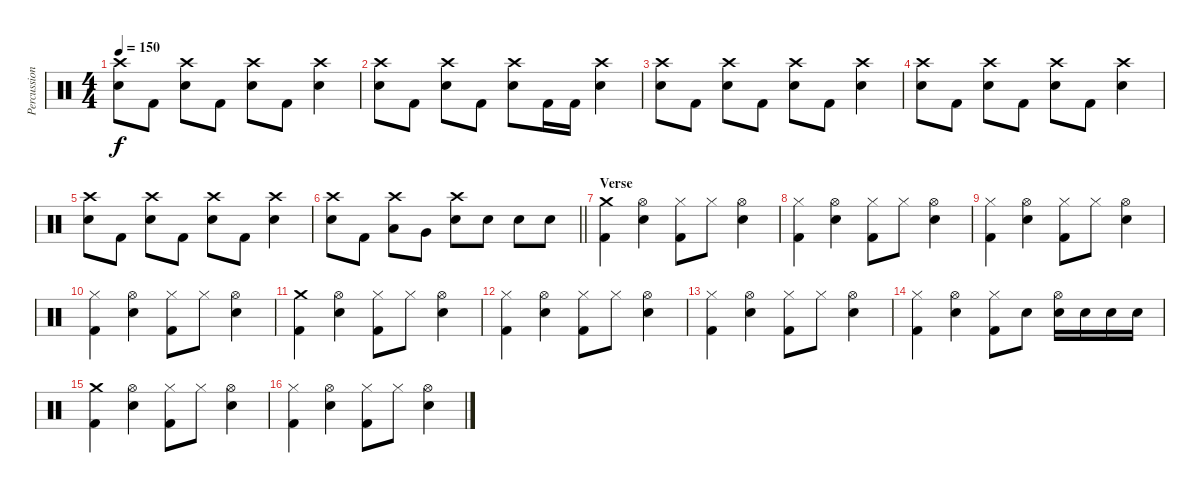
\track ("Percussion" "Percussion") {instrument percussion}
\staff {score}
\articulation defaults
\ts (4 4)
\tempo 150
\clef neutral
\ks c
("Crash high (hit)" "Electric Snare (hit)").8{dy f} "Kick (hit) 2".8 ("Crash high (hit)" "Electric Snare (hit)").8 "Kick (hit) 2".8 ("Crash high (hit)" "Electric Snare (hit)").8 "Kick (hit) 2".8 ("Crash high (hit)" "Electric Snare (hit)").4 |
("Crash high (hit)" "Electric Snare (hit)").8 "Kick (hit) 2".8 ("Crash high (hit)" "Electric Snare (hit)").8 "Kick (hit) 2".8 ("Crash high (hit)" "Electric Snare (hit)").8 "Kick (hit) 2".16 "Kick (hit) 2".16 ("Crash high (hit)" "Electric Snare (hit)").4 |
("Crash high (hit)" "Electric Snare (hit)").8 "Kick (hit) 2".8 ("Crash high (hit)" "Electric Snare (hit)").8 "Kick (hit) 2".8 ("Crash high (hit)" "Electric Snare (hit)").8 "Kick (hit) 2".8 ("Crash high (hit)" "Electric Snare (hit)").4 |
("Crash high (hit)" "Electric Snare (hit)").8 "Kick (hit) 2".8 ("Crash high (hit)" "Electric Snare (hit)").8 "Kick (hit) 2".8 ("Crash high (hit)" "Electric Snare (hit)").8 "Kick (hit) 2".8 ("Crash high (hit)" "Electric Snare (hit)").4 |
("Crash high (hit)" "Electric Snare (hit)").8 "Kick (hit) 2".8 ("Crash high (hit)" "Electric Snare (hit)").8 "Kick (hit) 2".8 ("Crash high (hit)" "Electric Snare (hit)").8 "Kick (hit) 2".8 ("Crash high (hit)" "Electric Snare (hit)").4 |
\barLineRight lightlight
("Crash high (hit)" "Electric Snare (hit)").8 "Kick (hit) 2".8 ("Crash high (hit)" "Low Tom (hit)").8 "Very Low Tom (hit)".8 ("Crash high (hit)" "Electric Snare (hit)").8 "Electric Snare (hit)".8 "Electric Snare (hit)".8 "Electric Snare (hit)".8 |
\section ("" "Verse")
("Crash medium (hit)" "Kick (hit) 2").4 ("Hi-Hat (open)" "Electric Snare (hit)").4 ("Hi-Hat (closed)" "Kick (hit) 2").8 "Hi-Hat (closed)".8 ("Hi-Hat (open)" "Electric Snare (hit)").4 |
("Hi-Hat (closed)" "Kick (hit) 2").4 ("Hi-Hat (open)" "Electric Snare (hit)").4 ("Hi-Hat (closed)" "Kick (hit) 2").8 "Hi-Hat (closed)".8 ("Hi-Hat (open)" "Electric Snare (hit)").4 |
("Hi-Hat (closed)" "Kick (hit) 2").4 ("Hi-Hat (open)" "Electric Snare (hit)").4 ("Hi-Hat (closed)" "Kick (hit) 2").8 "Hi-Hat (closed)".8 ("Hi-Hat (open)" "Electric Snare (hit)").4 |
("Hi-Hat (closed)" "Kick (hit) 2").4 ("Hi-Hat (open)" "Electric Snare (hit)").4 ("Hi-Hat (closed)" "Kick (hit) 2").8 "Hi-Hat (closed)".8 ("Hi-Hat (open)" "Electric Snare (hit)").4 |
("Crash medium (hit)" "Kick (hit) 2").4 ("Hi-Hat (open)" "Electric Snare (hit)").4 ("Hi-Hat (closed)" "Kick (hit) 2").8 "Hi-Hat (closed)".8 ("Hi-Hat (open)" "Electric Snare (hit)").4 |
("Hi-Hat (closed)" "Kick (hit) 2").4 ("Hi-Hat (open)" "Electric Snare (hit)").4 ("Hi-Hat (closed)" "Kick (hit) 2").8 "Hi-Hat (closed)".8 ("Hi-Hat (open)" "Electric Snare (hit)").4 |
("Hi-Hat (closed)" "Kick (hit) 2").4 ("Hi-Hat (open)" "Electric Snare (hit)").4 ("Hi-Hat (closed)" "Kick (hit) 2").8 "Hi-Hat (closed)".8 ("Hi-Hat (open)" "Electric Snare (hit)").4 |
("Hi-Hat (closed)" "Kick (hit) 2").4 ("Hi-Hat (open)" "Electric Snare (hit)").4 ("Hi-Hat (closed)" "Kick (hit) 2").8 "Electric Snare (hit)".8 ("Hi-Hat (open)" "Electric Snare (hit)").16 "Electric Snare (hit)".16 "Electric Snare (hit)".16 "Electric Snare (hit)".16 |
("Crash medium (hit)" "Kick (hit) 2").4 ("Hi-Hat (open)" "Electric Snare (hit)").4 ("Hi-Hat (closed)" "Kick (hit) 2").8 "Hi-Hat (closed)".8 ("Hi-Hat (open)" "Electric Snare (hit)").4 |
("Hi-Hat (closed)" "Kick (hit) 2").4 ("Hi-Hat (open)" "Electric Snare (hit)").4 ("Hi-Hat (closed)" "Kick (hit) 2").8 "Hi-Hat (closed)".8 ("Hi-Hat (open)" "Electric Snare (hit)").4
